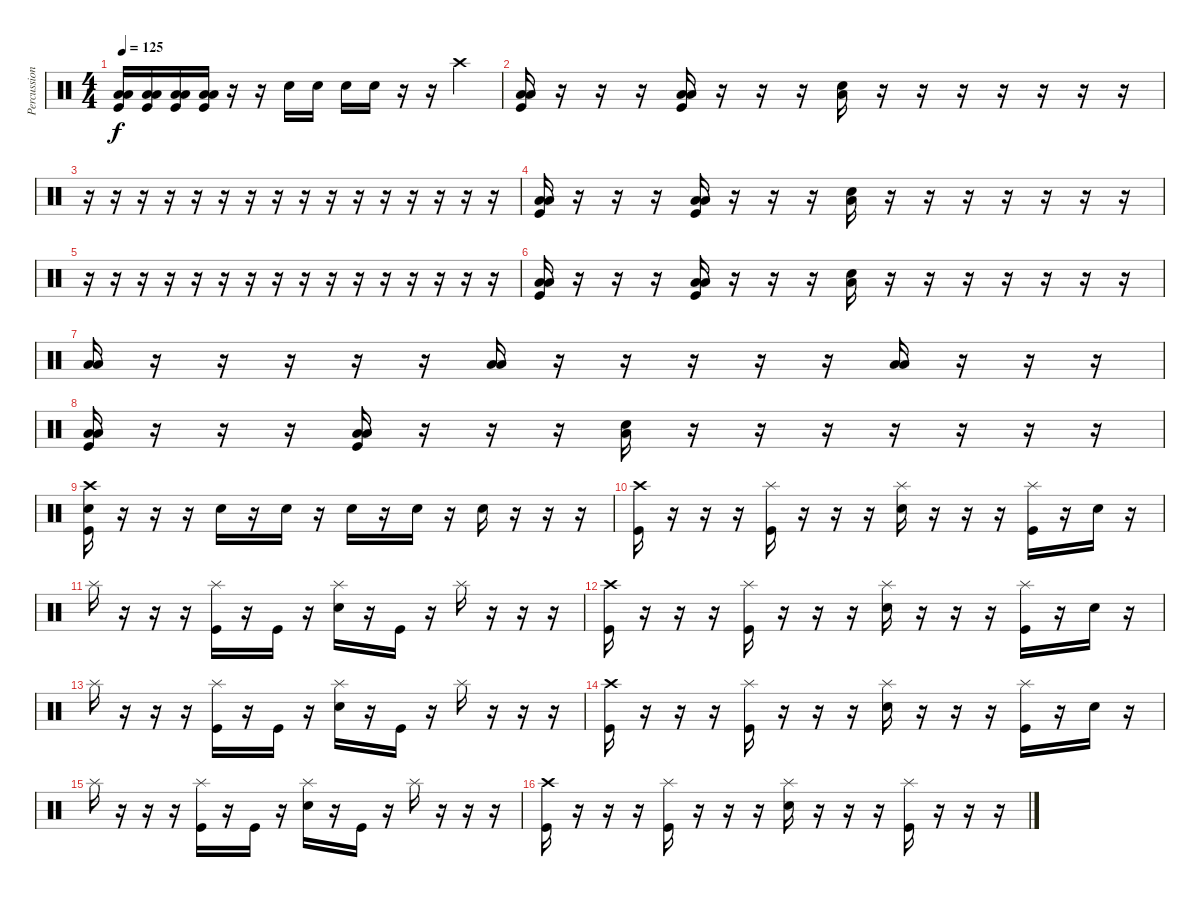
\track ("Percussion" "Percussion") {instrument percussion}
\staff {score}
\articulation defaults
\ts (4 4)
\tempo 125
\clef neutral
\ks c
("Low Tom (hit)" "Low Floor Tom (hit)" "Kick (hit)").16{dy f} ("Low Tom (hit)" "Low Floor Tom (hit)" "Kick (hit)").16 ("Low Tom (hit)" "Low Floor Tom (hit)" "Kick (hit)").16 ("Low Tom (hit)" "Low Floor Tom (hit)" "Kick (hit)").16 r.16 r.16 "Electric Snare (hit)".16 "Electric Snare (hit)".16 "Electric Snare (hit)".16 "Electric Snare (hit)".16 r.16 r.16{volume 0} "Crash high (hit)".4{volume 13} |
("Low Tom (hit)" "Low Floor Tom (hit)" "Kick (hit)").16 r.16 r.16 r.16 ("Low Tom (hit)" "Low Floor Tom (hit)" "Kick (hit)").16 r.16 r.16 r.16 ("Electric Snare (hit)" "Low Floor Tom (hit)").16 r.16 r.16 r.16 r.16 r.16 r.16 r.16 |
r.16 r.16 r.16 r.16 r.16 r.16 r.16 r.16 r.16 r.16 r.16 r.16 r.16 r.16 r.16 r.16 |
("Low Tom (hit)" "Low Floor Tom (hit)" "Kick (hit)").16 r.16 r.16 r.16 ("Low Tom (hit)" "Low Floor Tom (hit)" "Kick (hit)").16 r.16 r.16 r.16 ("Electric Snare (hit)" "Low Floor Tom (hit)").16 r.16 r.16 r.16 r.16 r.16 r.16 r.16 |
r.16 r.16 r.16 r.16 r.16 r.16 r.16 r.16 r.16 r.16 r.16 r.16 r.16 r.16 r.16 r.16 |
("Low Tom (hit)" "Low Floor Tom (hit)" "Kick (hit)").16 r.16 r.16 r.16 ("Low Tom (hit)" "Low Floor Tom (hit)" "Kick (hit)").16 r.16 r.16 r.16 ("Electric Snare (hit)" "Low Floor Tom (hit)").16 r.16 r.16 r.16 r.16 r.16 r.16 r.16 |
("Low Tom (hit)" "Low Floor Tom (hit)").16 r.16 r.16 r.16 r.16 r.16 ("Low Tom (hit)" "Low Floor Tom (hit)").16 r.16 r.16 r.16 r.16 r.16 ("Low Tom (hit)" "Low Floor Tom (hit)").16 r.16 r.16 r.16 |
("Low Tom (hit)" "Low Floor Tom (hit)" "Kick (hit)").16 r.16 r.16 r.16 ("Low Tom (hit)" "Low Floor Tom (hit)" "Kick (hit)").16 r.16 r.16 r.16 ("Electric Snare (hit)" "Low Floor Tom (hit)").16 r.16 r.16 r.16 r.16 r.16 r.16 r.16 |
("Crash high (hit)" "Electric Snare (hit)" "Kick (hit)").16 r.16 r.16 r.16 "Electric Snare (hit)".16 r.16 "Electric Snare (hit)".16 r.16 "Electric Snare (hit)".16 r.16 "Electric Snare (hit)".16 r.16 "Electric Snare (hit)".16 r.16 r.16 r.16 |
("Crash high (hit)" "Kick (hit)").16 r.16 r.16 r.16 ("Splash (hit)" "Kick (hit)").16 r.16 r.16 r.16 ("Splash (hit)" "Electric Snare (hit)").16 r.16 r.16 r.16 ("Splash (hit)" "Kick (hit)").16 r.16 "Electric Snare (hit)".16 r.16 |
"Splash (hit)".16 r.16 r.16 r.16 ("Splash (hit)" "Kick (hit)").16 r.16 "Kick (hit)".16 r.16 ("Splash (hit)" "Electric Snare (hit)").16 r.16 "Kick (hit)".16 r.16 "Splash (hit)".16 r.16 r.16 r.16 |
("Crash high (hit)" "Kick (hit)").16 r.16 r.16 r.16 ("Splash (hit)" "Kick (hit)").16 r.16 r.16 r.16 ("Splash (hit)" "Electric Snare (hit)").16 r.16 r.16 r.16 ("Splash (hit)" "Kick (hit)").16 r.16 "Electric Snare (hit)".16 r.16 |
"Splash (hit)".16 r.16 r.16 r.16 ("Splash (hit)" "Kick (hit)").16 r.16 "Kick (hit)".16 r.16 ("Splash (hit)" "Electric Snare (hit)").16 r.16 "Kick (hit)".16 r.16 "Splash (hit)".16 r.16 r.16 r.16 |
("Crash high (hit)" "Kick (hit)").16 r.16 r.16 r.16 ("Splash (hit)" "Kick (hit)").16 r.16 r.16 r.16 ("Splash (hit)" "Electric Snare (hit)").16 r.16 r.16 r.16 ("Splash (hit)" "Kick (hit)").16 r.16 "Electric Snare (hit)".16 r.16 |
"Splash (hit)".16 r.16 r.16 r.16 ("Splash (hit)" "Kick (hit)").16 r.16 "Kick (hit)".16 r.16 ("Splash (hit)" "Electric Snare (hit)").16 r.16 "Kick (hit)".16 r.16 "Splash (hit)".16 r.16 r.16 r.16 |
("Crash high (hit)" "Kick (hit)").16 r.16 r.16 r.16 ("Splash (hit)" "Kick (hit)").16 r.16 r.16 r.16 ("Splash (hit)" "Electric Snare (hit)").16 r.16 r.16 r.16 ("Splash (hit)" "Kick (hit)").16 r.16 r.16 r.16
